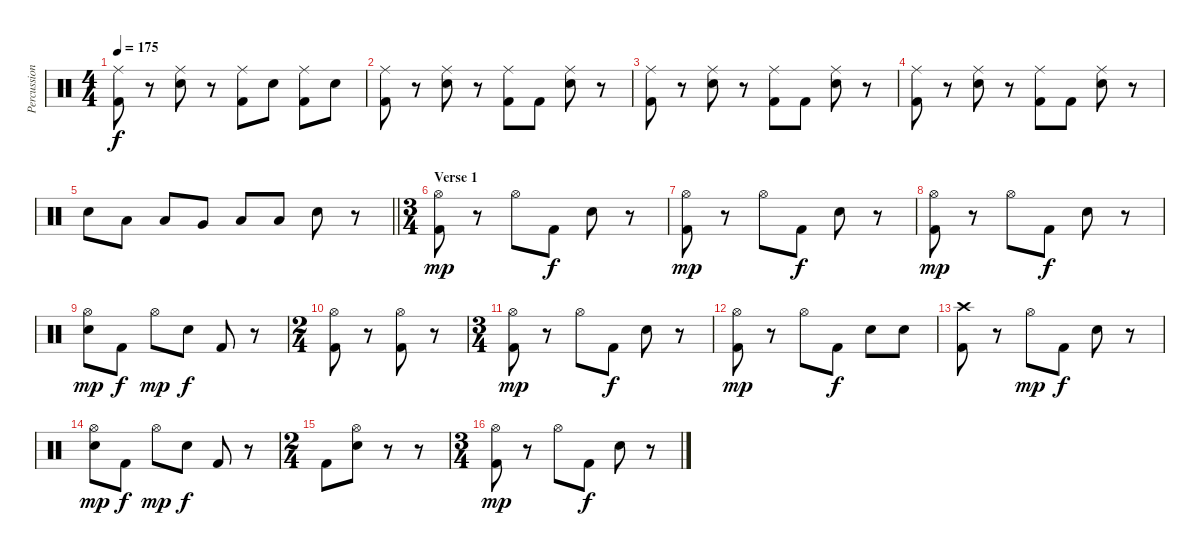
\track ("Percussion" "Percussion") {instrument percussion}
\staff {score}
\articulation defaults
\ts (4 4)
\tempo 175
\clef neutral
\ks c
("Ride (middle)" "Kick (hit) 2").8{dy f} r.8 ("Ride (middle)" "Snare (hit) 2").8 r.8 ("Ride (middle)" "Kick (hit) 2").8 "Snare (hit) 2".8 ("Ride (middle)" "Kick (hit) 2").8 "Snare (hit) 2".8 |
("Ride (middle)" "Kick (hit) 2").8 r.8 ("Ride (middle)" "Snare (hit) 2").8 r.8 ("Ride (middle)" "Kick (hit) 2").8 "Kick (hit) 2".8 ("Ride (middle)" "Snare (hit) 2").8 r.8 |
("Ride (middle)" "Kick (hit) 2").8 r.8 ("Ride (middle)" "Snare (hit) 2").8 r.8 ("Ride (middle)" "Kick (hit) 2").8 "Kick (hit) 2".8 ("Ride (middle)" "Snare (hit) 2").8 r.8 |
("Ride (middle)" "Kick (hit) 2").8 r.8 ("Ride (middle)" "Snare (hit) 2").8 r.8 ("Ride (middle)" "Kick (hit) 2").8 "Kick (hit) 2".8 ("Ride (middle)" "Snare (hit) 2").8 r.8 |
\barLineRight lightlight "Snare (hit) 2".8 "Low Tom (hit)".8 "Low Tom (hit)".8 "Very Low Tom (hit)".8 "Low Floor Tom (hit)".8 "Low Floor Tom (hit)".8 "Snare (hit) 2".8
r.8 |
\ts (3 4)
\section ("" "Verse 1")
("Hi-Hat (open)" "Kick (hit) 2").8{dy mp} r.8 "Hi-Hat (open)".8 "Kick (hit) 2".8{dy f} "Snare (hit) 2".8 r.8 |
("Hi-Hat (open)" "Kick (hit) 2").8{dy mp} r.8 "Hi-Hat (open)".8 "Kick (hit) 2".8{dy f} "Snare (hit) 2".8 r.8 |
("Hi-Hat (open)" "Kick (hit) 2").8{dy mp} r.8 "Hi-Hat (open)".8 "Kick (hit) 2".8{dy f} "Snare (hit) 2".8 r.8 |
("Hi-Hat (open)" "Snare (hit) 2").8{dy mp} "Kick (hit) 2".8{dy f} "Hi-Hat (open)".8{dy mp} "Snare (hit) 2".8{dy f} "Kick (hit) 2".8 r.8 |
\ts (2 4)
("Hi-Hat (open)" "Kick (hit) 2").8 r.8 ("Hi-Hat (open)" "Kick (hit) 2").8 r.8 |
\ts (3 4)
("Hi-Hat (open)" "Kick (hit) 2").8{dy mp} r.8 "Hi-Hat (open)".8 "Kick (hit) 2".8{dy f} "Snare (hit) 2".8 r.8 |
("Hi-Hat (open)" "Kick (hit) 2").8{dy mp} r.8 "Hi-Hat (open)".8 "Kick (hit) 2".8{dy f} "Snare (hit) 2".8 "Snare (hit) 2".8 |
("Crash high (hit)" "Kick (hit) 2").8 r.8 "Hi-Hat (open)".8{dy mp} "Kick (hit) 2".8{dy f} "Snare (hit) 2".8 r.8 |
("Hi-Hat (open)" "Snare (hit) 2").8{dy mp} "Kick (hit) 2".8{dy f} "Hi-Hat (open)".8{dy mp} "Snare (hit) 2".8{dy f} "Kick (hit) 2".8 r.8 |
\ts (2 4)
"Kick (hit) 2".8 ("Hi-Hat (open)" "Snare (hit) 2").8 r.8 r.8 |
\ts (3 4)
("Hi-Hat (open)" "Kick (hit) 2").8{dy mp} r.8 "Hi-Hat (open)".8 "Kick (hit) 2".8{dy f} "Snare (hit) 2".8 r.8
